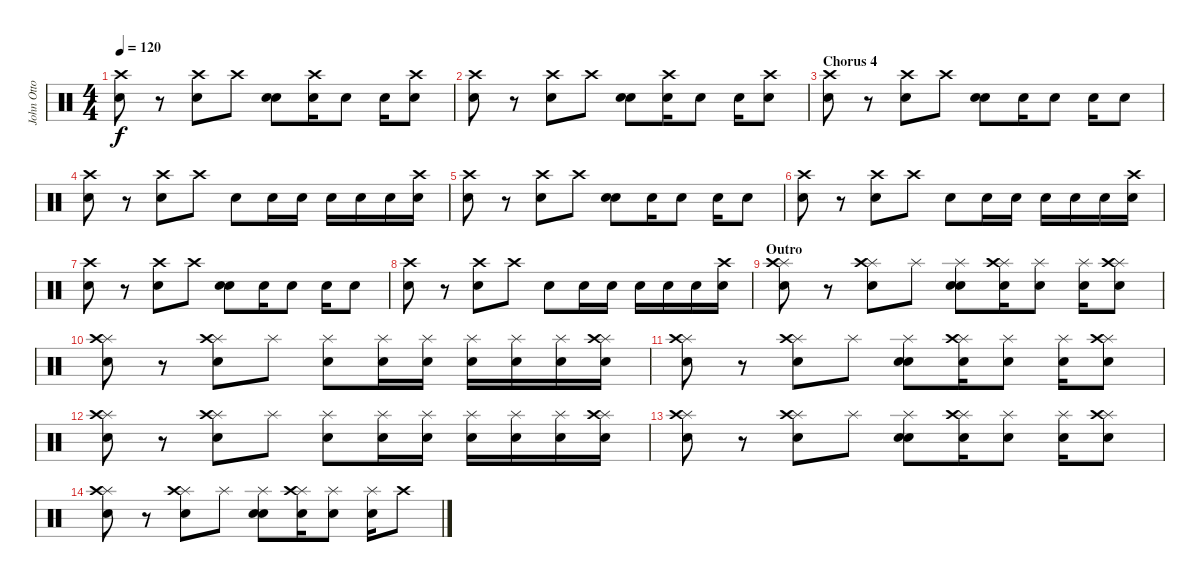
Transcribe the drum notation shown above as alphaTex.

\track ("John Otto (Drums)" "John Otto ") {instrument percussion}
\staff {score}
\articulation defaults
\ts (4 4)
\tempo 120
\clef neutral
\ks c
("Snare (hit) 2" "Crash high (hit)").8{dy f} r.8 ("Snare (hit) 2" "Crash high (hit)").8 "Crash high (hit)".8 ("Electric Snare (hit)" "Snare (hit)").8 ("Snare (hit) 2" "Crash high (hit)").16 "Snare (hit) 2".8 "Electric Snare (hit)".16 ("Electric Snare (hit)" "Crash high (hit)").8 |
("Snare (hit) 2" "Crash high (hit)").8 r.8 ("Snare (hit) 2" "Crash high (hit)").8 "Crash high (hit)".8 ("Electric Snare (hit)" "Snare (hit)").8 ("Snare (hit) 2" "Crash high (hit)").16 "Snare (hit) 2".8 "Electric Snare (hit)".16 ("Electric Snare (hit)" "Crash high (hit)").8 |
\section ("" "Chorus 4")
("Snare (hit) 2" "Crash high (hit)").8 r.8 ("Snare (hit) 2" "Crash high (hit)").8 "Crash high (hit)".8 ("Electric Snare (hit)" "Snare (hit)").8 "Snare (hit) 2".16 "Snare (hit) 2".8 "Electric Snare (hit)".16 "Electric Snare (hit)".8 |
("Snare (hit) 2" "Crash high (hit)").8 r.8 ("Snare (hit) 2" "Crash high (hit)").8 "Crash high (hit)".8 "Electric Snare (hit)".8 "Snare (hit) 2".16 "Snare (hit) 2".16 "Electric Snare (hit)".16 "Electric Snare (hit)".16 "Snare (hit) 2".16 ("Electric Snare (hit)" "Crash high (hit)").16 |
("Snare (hit) 2" "Crash high (hit)").8 r.8 ("Snare (hit) 2" "Crash high (hit)").8 "Crash high (hit)".8 ("Electric Snare (hit)" "Snare (hit)").8 "Snare (hit) 2".16 "Snare (hit) 2".8 "Electric Snare (hit)".16 "Electric Snare (hit)".8 |
("Snare (hit) 2" "Crash high (hit)").8 r.8 ("Snare (hit) 2" "Crash high (hit)").8 "Crash high (hit)".8 "Electric Snare (hit)".8 "Snare (hit) 2".16 "Snare (hit) 2".16 "Electric Snare (hit)".16 "Electric Snare (hit)".16 "Snare (hit) 2".16 ("Electric Snare (hit)" "Crash high (hit)").16 |
("Snare (hit) 2" "Crash high (hit)").8 r.8 ("Snare (hit) 2" "Crash high (hit)").8 "Crash high (hit)".8 ("Electric Snare (hit)" "Snare (hit)").8 "Snare (hit) 2".16 "Snare (hit) 2".8 "Electric Snare (hit)".16 "Electric Snare (hit)".8 |
("Snare (hit) 2" "Crash high (hit)").8 r.8 ("Snare (hit) 2" "Crash high (hit)").8 "Crash high (hit)".8 "Electric Snare (hit)".8 "Snare (hit) 2".16 "Snare (hit) 2".16 "Electric Snare (hit)".16 "Electric Snare (hit)".16 "Snare (hit) 2".16 ("Electric Snare (hit)" "Crash high (hit)").16 |
\section ("" "Outro")
("Splash (hit)" "Electric Snare (hit)" "Crash high (hit)").8 r.8 ("Splash (hit)" "Electric Snare (hit)" "Crash high (hit)").8 "Splash (hit)".8 ("Splash (hit)" "Snare (hit) 2" "Snare (hit)").8 ("Splash (hit)" "Snare (hit) 2" "Crash high (hit)").16 ("Splash (hit)" "Snare (hit) 2").8 ("Splash (hit)" "Electric Snare (hit)").16 ("Splash (hit)" "Electric Snare (hit)" "Crash high (hit)").8 |
("Splash (hit)" "Electric Snare (hit)" "Crash high (hit)").8 r.8 ("Splash (hit)" "Electric Snare (hit)" "Crash high (hit)").8 "Splash (hit)".8 ("Splash (hit)" "Snare (hit) 2").8 ("Splash (hit)" "Snare (hit) 2").16 ("Splash (hit)" "Snare (hit) 2").16 ("Splash (hit)" "Electric Snare (hit)").16 ("Splash (hit)" "Electric Snare (hit)").16 ("Splash (hit)" "Snare (hit) 2").16 ("Splash (hit)" "Electric Snare (hit)" "Crash high (hit)").16 |
("Splash (hit)" "Electric Snare (hit)" "Crash high (hit)").8 r.8 ("Splash (hit)" "Electric Snare (hit)" "Crash high (hit)").8 "Splash (hit)".8 ("Splash (hit)" "Snare (hit) 2" "Snare (hit)").8 ("Splash (hit)" "Snare (hit) 2" "Crash high (hit)").16 ("Splash (hit)" "Snare (hit) 2").8 ("Splash (hit)" "Electric Snare (hit)").16 ("Splash (hit)" "Electric Snare (hit)" "Crash high (hit)").8 |
("Splash (hit)" "Electric Snare (hit)" "Crash high (hit)").8 r.8 ("Splash (hit)" "Electric Snare (hit)" "Crash high (hit)").8 "Splash (hit)".8 ("Splash (hit)" "Snare (hit) 2").8 ("Splash (hit)" "Snare (hit) 2").16 ("Splash (hit)" "Snare (hit) 2").16 ("Splash (hit)" "Electric Snare (hit)").16 ("Splash (hit)" "Electric Snare (hit)").16 ("Splash (hit)" "Snare (hit) 2").16 ("Splash (hit)" "Electric Snare (hit)" "Crash high (hit)").16 |
("Splash (hit)" "Electric Snare (hit)" "Crash high (hit)").8 r.8 ("Splash (hit)" "Electric Snare (hit)" "Crash high (hit)").8 "Splash (hit)".8 ("Splash (hit)" "Snare (hit) 2" "Snare (hit)").8 ("Splash (hit)" "Snare (hit) 2" "Crash high (hit)").16 ("Splash (hit)" "Snare (hit) 2").8 ("Splash (hit)" "Electric Snare (hit)").16 ("Splash (hit)" "Electric Snare (hit)" "Crash high (hit)").8 |
("Splash (hit)" "Electric Snare (hit)" "Crash high (hit)").8 r.8 ("Splash (hit)" "Electric Snare (hit)" "Crash high (hit)").8 "Splash (hit)".8 ("Splash (hit)" "Snare (hit) 2" "Snare (hit)").8 ("Splash (hit)" "Electric Snare (hit)" "Crash high (hit)").16 ("Splash (hit)" "Electric Snare (hit)").8 ("Splash (hit)" "Snare (hit) 2").16 "Crash high (hit)".8
